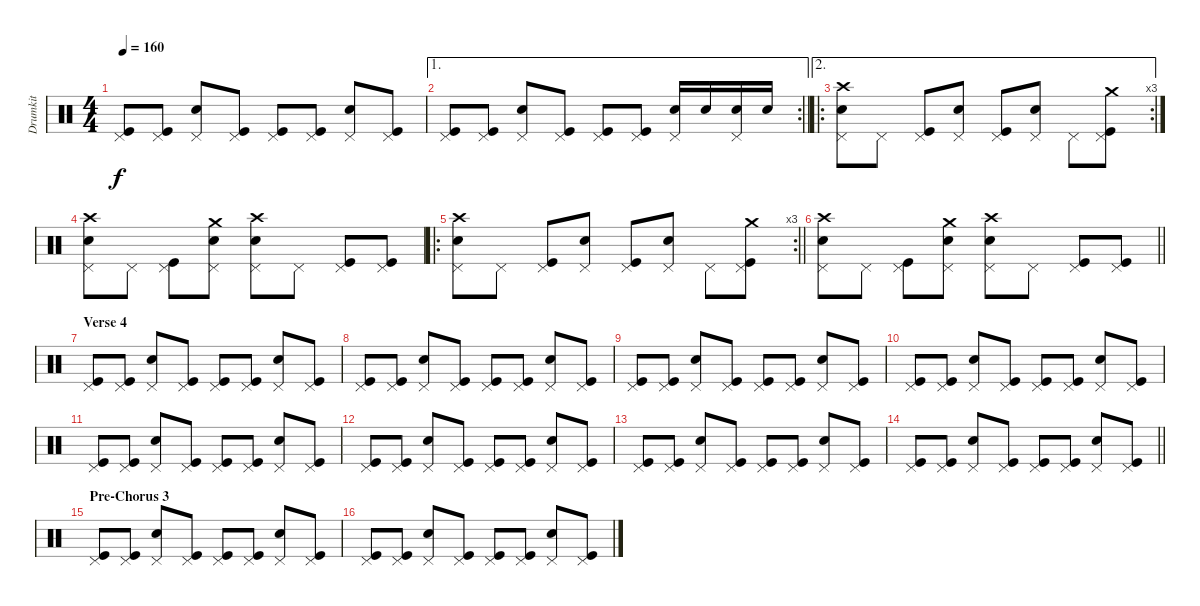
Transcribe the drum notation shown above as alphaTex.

\track ("Drumkit" "Drumkit") {instrument percussion}
\staff {score}
\articulation defaults
\ts (4 4)
\tempo 160
\clef neutral
\ks c
("Pedal Hi-Hat (hit)" "Kick (hit)").8{dy f} ("Pedal Hi-Hat (hit)" "Kick (hit)").8 ("Pedal Hi-Hat (hit)" "Snare (hit) 2").8 ("Pedal Hi-Hat (hit)" "Kick (hit)").8 ("Pedal Hi-Hat (hit)" "Kick (hit)").8 ("Pedal Hi-Hat (hit)" "Kick (hit)").8 ("Pedal Hi-Hat (hit)" "Snare (hit) 2").8 ("Pedal Hi-Hat (hit)" "Kick (hit)").8 |
\ae 1
\rc 2
\barLineRight lightlight
("Pedal Hi-Hat (hit)" "Kick (hit)").8 ("Pedal Hi-Hat (hit)" "Kick (hit)").8 ("Pedal Hi-Hat (hit)" "Snare (hit) 2").8 ("Pedal Hi-Hat (hit)" "Kick (hit)").8 ("Pedal Hi-Hat (hit)" "Kick (hit)").8 ("Pedal Hi-Hat (hit)" "Kick (hit)").8 ("Pedal Hi-Hat (hit)" "Snare (hit) 2").16 "Snare (hit) 2".16 ("Pedal Hi-Hat (hit)" "Snare (hit) 2").16 "Snare (hit) 2".16 |
\ae 2
\ro
\rc 3
("Crash high (hit)" "Pedal Hi-Hat (hit)" "Snare (hit) 2").8 "Pedal Hi-Hat (hit)".8 ("Pedal Hi-Hat (hit)" "Kick (hit)").8 ("Pedal Hi-Hat (hit)" "Snare (hit) 2").8 ("Pedal Hi-Hat (hit)" "Kick (hit)").8 ("Pedal Hi-Hat (hit)" "Snare (hit) 2").8 "Pedal Hi-Hat (hit)".8 ("Crash medium (hit)" "Pedal Hi-Hat (hit)" "Kick (hit)").8 |
("Crash high (hit)" "Pedal Hi-Hat (hit)" "Snare (hit) 2").8 "Pedal Hi-Hat (hit)".8 ("Pedal Hi-Hat (hit)" "Kick (hit)").8 ("Crash medium (hit)" "Pedal Hi-Hat (hit)" "Snare (hit) 2").8 ("Crash high (hit)" "Pedal Hi-Hat (hit)" "Snare (hit) 2").8 "Pedal Hi-Hat (hit)".8 ("Pedal Hi-Hat (hit)" "Kick (hit)").8 ("Pedal Hi-Hat (hit)" "Kick (hit)").8 |
\ro
\rc 3
\barLineRight lightlight
("Crash high (hit)" "Pedal Hi-Hat (hit)" "Snare (hit) 2").8 "Pedal Hi-Hat (hit)".8 ("Pedal Hi-Hat (hit)" "Kick (hit)").8 ("Pedal Hi-Hat (hit)" "Snare (hit) 2").8 ("Pedal Hi-Hat (hit)" "Kick (hit)").8 ("Pedal Hi-Hat (hit)" "Snare (hit) 2").8 "Pedal Hi-Hat (hit)".8 ("Crash medium (hit)" "Pedal Hi-Hat (hit)" "Kick (hit)").8 |
\barLineRight lightlight
("Crash high (hit)" "Pedal Hi-Hat (hit)" "Snare (hit) 2").8 "Pedal Hi-Hat (hit)".8 ("Pedal Hi-Hat (hit)" "Kick (hit)").8 ("Crash medium (hit)" "Pedal Hi-Hat (hit)" "Snare (hit) 2").8 ("Crash high (hit)" "Pedal Hi-Hat (hit)" "Snare (hit) 2").8 "Pedal Hi-Hat (hit)".8 ("Pedal Hi-Hat (hit)" "Kick (hit)").8 ("Pedal Hi-Hat (hit)" "Kick (hit)").8 |
\section ("" "Verse 4")
("Pedal Hi-Hat (hit)" "Kick (hit)").8 ("Pedal Hi-Hat (hit)" "Kick (hit)").8 ("Pedal Hi-Hat (hit)" "Snare (hit) 2").8 ("Pedal Hi-Hat (hit)" "Kick (hit)").8 ("Pedal Hi-Hat (hit)" "Kick (hit)").8 ("Pedal Hi-Hat (hit)" "Kick (hit)").8 ("Pedal Hi-Hat (hit)" "Snare (hit) 2").8 ("Pedal Hi-Hat (hit)" "Kick (hit)").8 |
("Pedal Hi-Hat (hit)" "Kick (hit)").8 ("Pedal Hi-Hat (hit)" "Kick (hit)").8 ("Pedal Hi-Hat (hit)" "Snare (hit) 2").8 ("Pedal Hi-Hat (hit)" "Kick (hit)").8 ("Pedal Hi-Hat (hit)" "Kick (hit)").8 ("Pedal Hi-Hat (hit)" "Kick (hit)").8 ("Pedal Hi-Hat (hit)" "Snare (hit) 2").8 ("Pedal Hi-Hat (hit)" "Kick (hit)").8 |
("Pedal Hi-Hat (hit)" "Kick (hit)").8 ("Pedal Hi-Hat (hit)" "Kick (hit)").8 ("Pedal Hi-Hat (hit)" "Snare (hit) 2").8 ("Pedal Hi-Hat (hit)" "Kick (hit)").8 ("Pedal Hi-Hat (hit)" "Kick (hit)").8 ("Pedal Hi-Hat (hit)" "Kick (hit)").8 ("Pedal Hi-Hat (hit)" "Snare (hit) 2").8 ("Pedal Hi-Hat (hit)" "Kick (hit)").8 |
("Pedal Hi-Hat (hit)" "Kick (hit)").8 ("Pedal Hi-Hat (hit)" "Kick (hit)").8 ("Pedal Hi-Hat (hit)" "Snare (hit) 2").8 ("Pedal Hi-Hat (hit)" "Kick (hit)").8 ("Pedal Hi-Hat (hit)" "Kick (hit)").8 ("Pedal Hi-Hat (hit)" "Kick (hit)").8 ("Pedal Hi-Hat (hit)" "Snare (hit) 2").8 ("Pedal Hi-Hat (hit)" "Kick (hit)").8 |
("Pedal Hi-Hat (hit)" "Kick (hit)").8 ("Pedal Hi-Hat (hit)" "Kick (hit)").8 ("Pedal Hi-Hat (hit)" "Snare (hit) 2").8 ("Pedal Hi-Hat (hit)" "Kick (hit)").8 ("Pedal Hi-Hat (hit)" "Kick (hit)").8 ("Pedal Hi-Hat (hit)" "Kick (hit)").8 ("Pedal Hi-Hat (hit)" "Snare (hit) 2").8 ("Pedal Hi-Hat (hit)" "Kick (hit)").8 |
("Pedal Hi-Hat (hit)" "Kick (hit)").8 ("Pedal Hi-Hat (hit)" "Kick (hit)").8 ("Pedal Hi-Hat (hit)" "Snare (hit) 2").8 ("Pedal Hi-Hat (hit)" "Kick (hit)").8 ("Pedal Hi-Hat (hit)" "Kick (hit)").8 ("Pedal Hi-Hat (hit)" "Kick (hit)").8 ("Pedal Hi-Hat (hit)" "Snare (hit) 2").8 ("Pedal Hi-Hat (hit)" "Kick (hit)").8 |
("Pedal Hi-Hat (hit)" "Kick (hit)").8 ("Pedal Hi-Hat (hit)" "Kick (hit)").8 ("Pedal Hi-Hat (hit)" "Snare (hit) 2").8 ("Pedal Hi-Hat (hit)" "Kick (hit)").8 ("Pedal Hi-Hat (hit)" "Kick (hit)").8 ("Pedal Hi-Hat (hit)" "Kick (hit)").8 ("Pedal Hi-Hat (hit)" "Snare (hit) 2").8 ("Pedal Hi-Hat (hit)" "Kick (hit)").8 |
\barLineRight lightlight
("Pedal Hi-Hat (hit)" "Kick (hit)").8 ("Pedal Hi-Hat (hit)" "Kick (hit)").8 ("Pedal Hi-Hat (hit)" "Snare (hit) 2").8 ("Pedal Hi-Hat (hit)" "Kick (hit)").8 ("Pedal Hi-Hat (hit)" "Kick (hit)").8 ("Pedal Hi-Hat (hit)" "Kick (hit)").8 ("Pedal Hi-Hat (hit)" "Snare (hit) 2").8 ("Pedal Hi-Hat (hit)" "Kick (hit)").8 |
\section ("" "Pre-Chorus 3")
("Pedal Hi-Hat (hit)" "Kick (hit)").8 ("Pedal Hi-Hat (hit)" "Kick (hit)").8 ("Pedal Hi-Hat (hit)" "Snare (hit) 2").8 ("Pedal Hi-Hat (hit)" "Kick (hit)").8 ("Pedal Hi-Hat (hit)" "Kick (hit)").8 ("Pedal Hi-Hat (hit)" "Kick (hit)").8 ("Pedal Hi-Hat (hit)" "Snare (hit) 2").8 ("Pedal Hi-Hat (hit)" "Kick (hit)").8 |
("Pedal Hi-Hat (hit)" "Kick (hit)").8 ("Pedal Hi-Hat (hit)" "Kick (hit)").8 ("Pedal Hi-Hat (hit)" "Snare (hit) 2").8 ("Pedal Hi-Hat (hit)" "Kick (hit)").8 ("Pedal Hi-Hat (hit)" "Kick (hit)").8 ("Pedal Hi-Hat (hit)" "Kick (hit)").8 ("Pedal Hi-Hat (hit)" "Snare (hit) 2").8 ("Pedal Hi-Hat (hit)" "Kick (hit)").8
